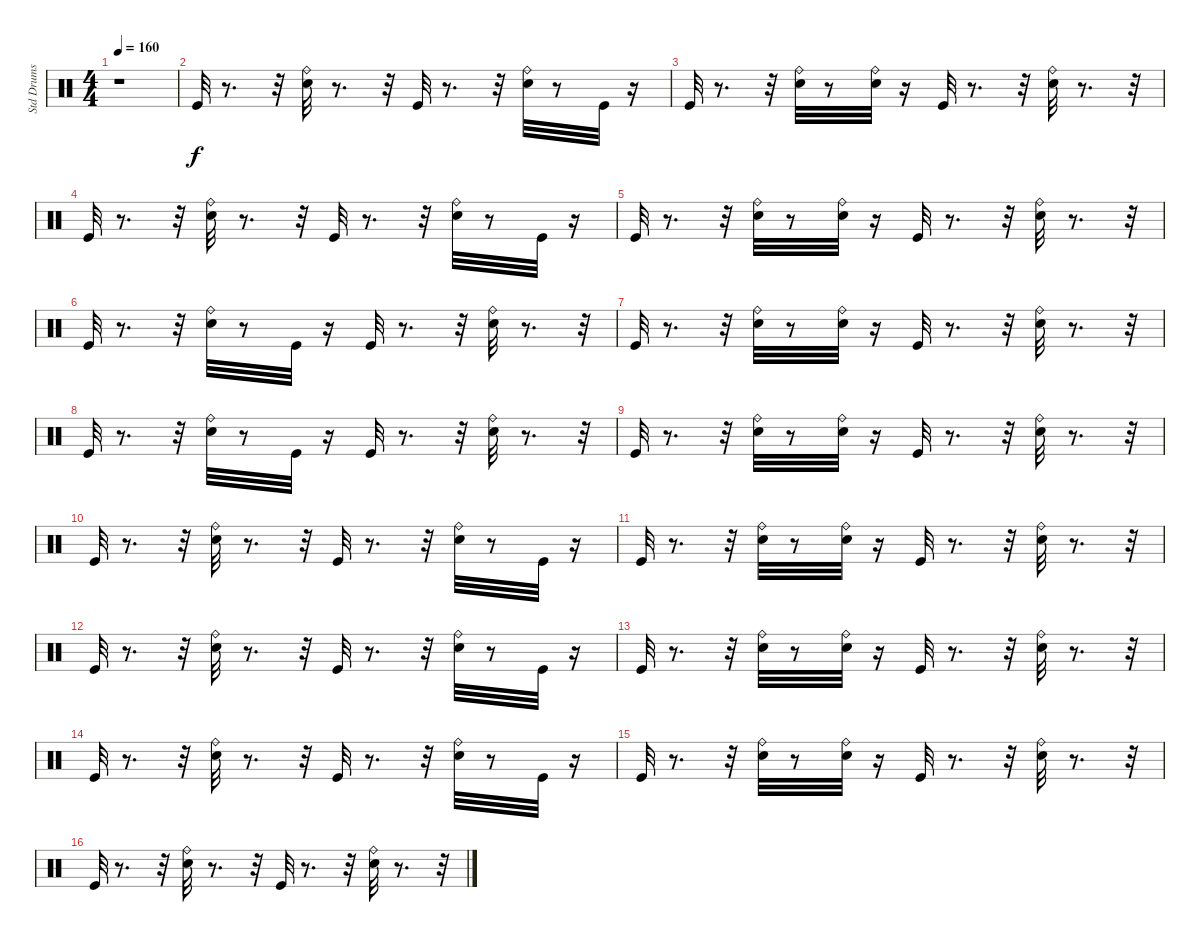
\track ("Std Drums" "Std Drums") {instrument percussion}
\staff {score}
\articulation defaults
\ts (4 4)
\tempo 160
\clef neutral
\ks c
r.1{dy f} |
"Kick (hit)".32 r.8{d} r.32 ("Snare (hit) 2" "Ride (bell)").32 r.8{d} r.32 "Kick (hit)".32 r.8{d} r.32 ("Snare (hit) 2" "Ride (bell)").32 r.8 "Kick (hit)".32 r.16 |
"Kick (hit)".32 r.8{d} r.32 ("Snare (hit) 2" "Ride (bell)").32 r.8 ("Ride (bell)" "Snare (hit) 2").32 r.16 "Kick (hit)".32 r.8{d} r.32 ("Snare (hit) 2" "Ride (bell)").32 r.8{d} r.32 |
"Kick (hit)".32 r.8{d} r.32 ("Ride (bell)" "Snare (hit) 2").32 r.8{d} r.32 "Kick (hit)".32 r.8{d} r.32 ("Ride (bell)" "Snare (hit) 2").32 r.8 "Kick (hit)".32 r.16 |
"Kick (hit)".32 r.8{d} r.32 ("Ride (bell)" "Snare (hit) 2").32 r.8 ("Ride (bell)" "Snare (hit) 2").32 r.16 "Kick (hit)".32 r.8{d} r.32 ("Ride (bell)" "Snare (hit) 2").32 r.8{d} r.32 |
"Kick (hit)".32 r.8{d} r.32 ("Snare (hit) 2" "Ride (bell)").32 r.8 "Kick (hit)".32 r.16 "Kick (hit)".32 r.8{d} r.32 ("Snare (hit) 2" "Ride (bell)").32 r.8{d} r.32 |
"Kick (hit)".32 r.8{d} r.32 ("Ride (bell)" "Snare (hit) 2").32 r.8 ("Snare (hit) 2" "Ride (bell)").32 r.16 "Kick (hit)".32 r.8{d} r.32 ("Snare (hit) 2" "Ride (bell)").32 r.8{d} r.32 |
"Kick (hit)".32 r.8{d} r.32 ("Ride (bell)" "Snare (hit) 2").32 r.8 "Kick (hit)".32 r.16 "Kick (hit)".32 r.8{d} r.32 ("Snare (hit) 2" "Ride (bell)").32 r.8{d} r.32 |
"Kick (hit)".32 r.8{d} r.32 ("Snare (hit) 2" "Ride (bell)").32 r.8 ("Ride (bell)" "Snare (hit) 2").32 r.16 "Kick (hit)".32 r.8{d} r.32 ("Snare (hit) 2" "Ride (bell)").32 r.8{d} r.32 |
"Kick (hit)".32 r.8{d} r.32 ("Snare (hit) 2" "Ride (bell)").32 r.8{d} r.32 "Kick (hit)".32 r.8{d} r.32 ("Ride (bell)" "Snare (hit) 2").32 r.8 "Kick (hit)".32 r.16 |
"Kick (hit)".32 r.8{d} r.32 ("Ride (bell)" "Snare (hit) 2").32 r.8 ("Ride (bell)" "Snare (hit) 2").32 r.16 "Kick (hit)".32 r.8{d} r.32 ("Snare (hit) 2" "Ride (bell)").32 r.8{d} r.32 |
"Kick (hit)".32 r.8{d} r.32 ("Snare (hit) 2" "Ride (bell)").32 r.8{d} r.32 "Kick (hit)".32 r.8{d} r.32 ("Ride (bell)" "Snare (hit) 2").32 r.8 "Kick (hit)".32 r.16 |
"Kick (hit)".32 r.8{d} r.32 ("Ride (bell)" "Snare (hit) 2").32 r.8 ("Ride (bell)" "Snare (hit) 2").32 r.16 "Kick (hit)".32 r.8{d} r.32 ("Ride (bell)" "Snare (hit) 2").32 r.8{d} r.32 |
"Kick (hit)".32 r.8{d} r.32 ("Snare (hit) 2" "Ride (bell)").32 r.8{d} r.32 "Kick (hit)".32 r.8{d} r.32 ("Ride (bell)" "Snare (hit) 2").32 r.8 "Kick (hit)".32 r.16 |
"Kick (hit)".32 r.8{d} r.32 ("Ride (bell)" "Snare (hit) 2").32 r.8 ("Snare (hit) 2" "Ride (bell)").32 r.16 "Kick (hit)".32 r.8{d} r.32 ("Ride (bell)" "Snare (hit) 2").32 r.8{d} r.32 |
"Kick (hit)".32 r.8{d} r.32 ("Ride (bell)" "Snare (hit) 2").32 r.8{d} r.32 "Kick (hit)".32 r.8{d} r.32 ("Snare (hit) 2" "Ride (bell)").32 r.8{d} r.32
